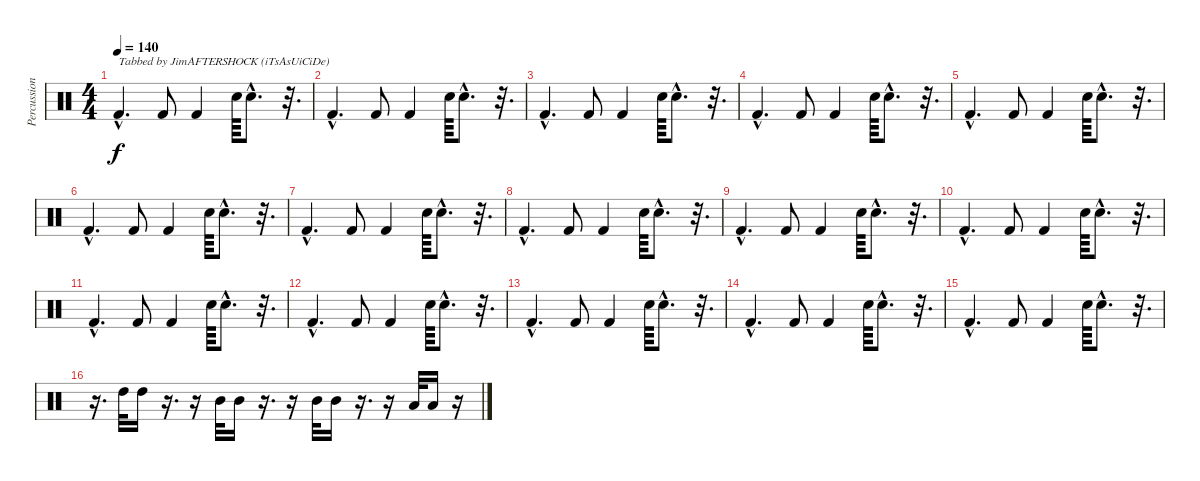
\track ("Percussioni" "Percussion") {instrument percussion}
\staff {score}
\articulation defaults
\ts (4 4)
\tempo 140
\clef neutral
\ks c "Kick (hit) 2"{hac}.4{d txt "Tabbed by JimAFTERSHOCK (iTsAsUiCiDe)" dy f} "Kick (hit) 2".8 "Kick (hit) 2".4 "Snare (hit) 2".64 "Snare (hit) 2"{hac}.8{d}
r.32{d} |
"Kick (hit) 2"{hac}.4{d} "Kick (hit) 2".8 "Kick (hit) 2".4 "Snare (hit) 2".64 "Snare (hit) 2"{hac}.8{d} r.32{d} |
"Kick (hit) 2"{hac}.4{d} "Kick (hit) 2".8 "Kick (hit) 2".4 "Snare (hit) 2".64 "Snare (hit) 2"{hac}.8{d} r.32{d} |
"Kick (hit) 2"{hac}.4{d} "Kick (hit) 2".8 "Kick (hit) 2".4 "Snare (hit) 2".64 "Snare (hit) 2"{hac}.8{d} r.32{d} |
"Kick (hit) 2"{hac}.4{d} "Kick (hit) 2".8 "Kick (hit) 2".4 "Snare (hit) 2".64 "Snare (hit) 2"{hac}.8{d} r.32{d} |
"Kick (hit) 2"{hac}.4{d} "Kick (hit) 2".8 "Kick (hit) 2".4 "Snare (hit) 2".64 "Snare (hit) 2"{hac}.8{d} r.32{d} |
"Kick (hit) 2"{hac}.4{d} "Kick (hit) 2".8 "Kick (hit) 2".4 "Snare (hit) 2".64 "Snare (hit) 2"{hac}.8{d} r.32{d} |
"Kick (hit) 2"{hac}.4{d} "Kick (hit) 2".8 "Kick (hit) 2".4 "Snare (hit) 2".64 "Snare (hit) 2"{hac}.8{d} r.32{d} |
"Kick (hit) 2"{hac}.4{d} "Kick (hit) 2".8 "Kick (hit) 2".4 "Snare (hit) 2".64 "Snare (hit) 2"{hac}.8{d} r.32{d} |
"Kick (hit) 2"{hac}.4{d} "Kick (hit) 2".8 "Kick (hit) 2".4 "Snare (hit) 2".64 "Snare (hit) 2"{hac}.8{d} r.32{d} |
"Kick (hit) 2"{hac}.4{d} "Kick (hit) 2".8 "Kick (hit) 2".4 "Snare (hit) 2".64 "Snare (hit) 2"{hac}.8{d} r.32{d} |
"Kick (hit) 2"{hac}.4{d} "Kick (hit) 2".8 "Kick (hit) 2".4 "Snare (hit) 2".64 "Snare (hit) 2"{hac}.8{d} r.32{d} |
"Kick (hit) 2"{hac}.4{d} "Kick (hit) 2".8 "Kick (hit) 2".4 "Snare (hit) 2".64 "Snare (hit) 2"{hac}.8{d} r.32{d} |
"Kick (hit) 2"{hac}.4{d} "Kick (hit) 2".8 "Kick (hit) 2".4 "Snare (hit) 2".64 "Snare (hit) 2"{hac}.8{d} r.32{d} |
"Kick (hit) 2"{hac}.4{d} "Kick (hit) 2".8 "Kick (hit) 2".4 "Snare (hit) 2".64 "Snare (hit) 2"{hac}.8{d} r.32{d} |
r.16{d} "High Tom (hit)".32 "High Tom (hit)".16 r.16{d} r.16 "Mid Tom (hit)".32 "Mid Tom (hit)".16 r.16{d} r.16 "Mid Tom (hit)".32 "Mid Tom (hit)".16 r.16{d} r.16 "Low Tom (hit)".32 "Low Tom (hit)".16 r.16
